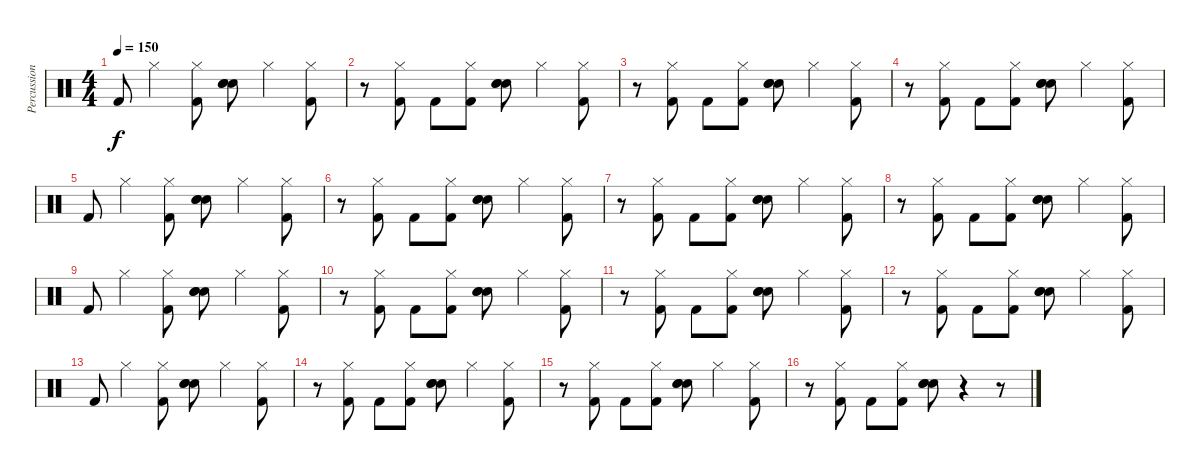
\track ("Percussion" "Percussion") {instrument percussion}
\staff {score}
\articulation defaults
\ts (4 4)
\tempo 150
\clef neutral
\ks c "Kick (hit) 2".8{dy f} "Hi-Hat (closed)".4
("Hi-Hat (closed)" "Kick (hit) 2").8 ("Hand Clap (hit)" "Electric Snare (hit)" "Snare (hit) 2").8 "Hi-Hat (closed)".4 ("Hi-Hat (closed)" "Kick (hit) 2").8 |
r.8 ("Hi-Hat (closed)" "Kick (hit) 2").8 "Kick (hit) 2".8 ("Hi-Hat (closed)" "Kick (hit) 2").8 ("Hand Clap (hit)" "Electric Snare (hit)" "Snare (hit) 2").8 "Hi-Hat (closed)".4 ("Hi-Hat (closed)" "Kick (hit) 2").8 |
r.8 ("Hi-Hat (closed)" "Kick (hit) 2").8 "Kick (hit) 2".8 ("Hi-Hat (closed)" "Kick (hit) 2").8 ("Hand Clap (hit)" "Electric Snare (hit)" "Snare (hit) 2").8 "Hi-Hat (closed)".4 ("Hi-Hat (closed)" "Kick (hit) 2").8 |
r.8 ("Hi-Hat (closed)" "Kick (hit) 2").8 "Kick (hit) 2".8 ("Hi-Hat (closed)" "Kick (hit) 2").8 ("Hand Clap (hit)" "Electric Snare (hit)" "Snare (hit) 2").8 "Hi-Hat (closed)".4 ("Hi-Hat (closed)" "Kick (hit) 2").8 |
"Kick (hit) 2".8 "Hi-Hat (closed)".4 ("Hi-Hat (closed)" "Kick (hit) 2").8 ("Hand Clap (hit)" "Electric Snare (hit)" "Snare (hit) 2").8 "Hi-Hat (closed)".4 ("Hi-Hat (closed)" "Kick (hit) 2").8 |
r.8 ("Hi-Hat (closed)" "Kick (hit) 2").8 "Kick (hit) 2".8 ("Hi-Hat (closed)" "Kick (hit) 2").8 ("Hand Clap (hit)" "Electric Snare (hit)" "Snare (hit) 2").8 "Hi-Hat (closed)".4 ("Hi-Hat (closed)" "Kick (hit) 2").8 |
r.8 ("Hi-Hat (closed)" "Kick (hit) 2").8 "Kick (hit) 2".8 ("Hi-Hat (closed)" "Kick (hit) 2").8 ("Hand Clap (hit)" "Electric Snare (hit)" "Snare (hit) 2").8 "Hi-Hat (closed)".4 ("Hi-Hat (closed)" "Kick (hit) 2").8 |
r.8 ("Hi-Hat (closed)" "Kick (hit) 2").8 "Kick (hit) 2".8 ("Hi-Hat (closed)" "Kick (hit) 2").8 ("Hand Clap (hit)" "Electric Snare (hit)" "Snare (hit) 2").8 "Hi-Hat (closed)".4 ("Hi-Hat (closed)" "Kick (hit) 2").8 |
"Kick (hit) 2".8 "Hi-Hat (closed)".4 ("Hi-Hat (closed)" "Kick (hit) 2").8 ("Hand Clap (hit)" "Electric Snare (hit)" "Snare (hit) 2").8 "Hi-Hat (closed)".4 ("Hi-Hat (closed)" "Kick (hit) 2").8 |
r.8 ("Hi-Hat (closed)" "Kick (hit) 2").8 "Kick (hit) 2".8 ("Hi-Hat (closed)" "Kick (hit) 2").8 ("Hand Clap (hit)" "Electric Snare (hit)" "Snare (hit) 2").8 "Hi-Hat (closed)".4 ("Hi-Hat (closed)" "Kick (hit) 2").8 |
r.8 ("Hi-Hat (closed)" "Kick (hit) 2").8 "Kick (hit) 2".8 ("Hi-Hat (closed)" "Kick (hit) 2").8 ("Hand Clap (hit)" "Electric Snare (hit)" "Snare (hit) 2").8 "Hi-Hat (closed)".4 ("Hi-Hat (closed)" "Kick (hit) 2").8 |
r.8 ("Hi-Hat (closed)" "Kick (hit) 2").8 "Kick (hit) 2".8 ("Hi-Hat (closed)" "Kick (hit) 2").8 ("Hand Clap (hit)" "Electric Snare (hit)" "Snare (hit) 2").8 "Hi-Hat (closed)".4 ("Hi-Hat (closed)" "Kick (hit) 2").8 |
"Kick (hit) 2".8 "Hi-Hat (closed)".4 ("Hi-Hat (closed)" "Kick (hit) 2").8 ("Hand Clap (hit)" "Electric Snare (hit)" "Snare (hit) 2").8 "Hi-Hat (closed)".4 ("Hi-Hat (closed)" "Kick (hit) 2").8 |
r.8 ("Hi-Hat (closed)" "Kick (hit) 2").8 "Kick (hit) 2".8 ("Hi-Hat (closed)" "Kick (hit) 2").8 ("Hand Clap (hit)" "Electric Snare (hit)" "Snare (hit) 2").8 "Hi-Hat (closed)".4 ("Hi-Hat (closed)" "Kick (hit) 2").8 |
r.8 ("Hi-Hat (closed)" "Kick (hit) 2").8 "Kick (hit) 2".8 ("Hi-Hat (closed)" "Kick (hit) 2").8 ("Hand Clap (hit)" "Electric Snare (hit)" "Snare (hit) 2").8 "Hi-Hat (closed)".4 ("Hi-Hat (closed)" "Kick (hit) 2").8 |
r.8 ("Hi-Hat (closed)" "Kick (hit) 2").8 "Kick (hit) 2".8 ("Hi-Hat (closed)" "Kick (hit) 2").8 ("Hand Clap (hit)" "Electric Snare (hit)" "Snare (hit) 2").8 r.4 r.8
